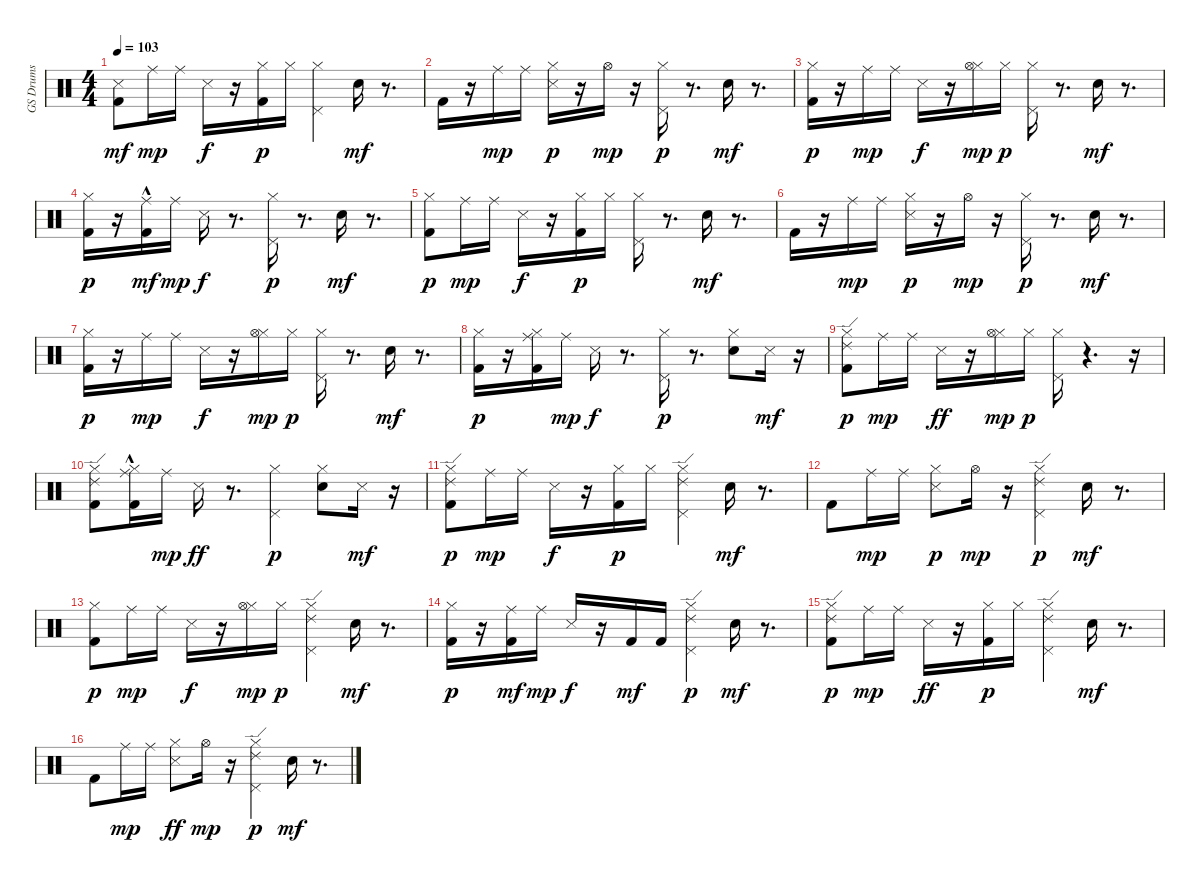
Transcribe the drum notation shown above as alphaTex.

\track ("GS Drums" "GS Drums") {instrument percussion}
\staff {score}
\articulation defaults
\ts (4 4)
\tempo 103
\clef neutral
\ks c
("Kick (hit) 2" "Snare (side stick) 3").8{dy mf} "Ride (middle)".16{dy mp} "Ride (middle)".16 "Snare (side stick) 3".16{dy f} r.16 ("Kick (hit) 2" "Hi-Hat (closed)").16{dy p} "Hi-Hat (closed)".16 ("Pedal Hi-Hat (hit)" "Hi-Hat (closed)").4 "Snare (hit) 2".16{dy mf} r.8{d} |
"Kick (hit) 2".16 r.16 "Ride (middle)".16{dy mp} "Ride (middle)".16 ("Hi-Hat (closed)" "Snare (side stick) 3").16{dy p} r.16 "Hi-Hat (open)".16{dy mp} r.16 ("Pedal Hi-Hat (hit)" "Hi-Hat (closed)").16{dy p} r.8{d} "Snare (hit) 2".16{dy mf} r.8{d} |
("Kick (hit) 2" "Hi-Hat (closed)").16{dy p} r.16 "Ride (middle)".16{dy mp} "Ride (middle)".16 "Snare (side stick) 3".16{dy f} r.16 ("Hi-Hat (closed)" "Hi-Hat (open)").16{dy mp} "Hi-Hat (closed)".16{dy p} ("Pedal Hi-Hat (hit)" "Hi-Hat (closed)").16 r.8{d} "Snare (hit) 2".16{dy mf} r.8{d} |
("Kick (hit) 2" "Hi-Hat (closed)").16{dy p} r.16 ("Ride (middle)" "Kick (hit) 2"{hac}).16{dy mf} "Ride (middle)".16{dy mp} "Snare (side stick) 3".16{dy f} r.8{d} ("Pedal Hi-Hat (hit)" "Hi-Hat (closed)").16{dy p} r.8{d} "Snare (hit) 2".16{dy mf} r.8{d} |
("Kick (hit) 2" "Hi-Hat (closed)").8{dy p} "Ride (middle)".16{dy mp} "Ride (middle)".16 "Snare (side stick) 3".16{dy f} r.16 ("Kick (hit) 2" "Hi-Hat (closed)").16{dy p} "Hi-Hat (closed)".16 ("Pedal Hi-Hat (hit)" "Hi-Hat (closed)").16 r.8{d} "Snare (hit) 2".16{dy mf} r.8{d} |
"Kick (hit) 2".16 r.16 "Ride (middle)".16{dy mp} "Ride (middle)".16 ("Hi-Hat (closed)" "Snare (side stick) 3").16{dy p} r.16 "Hi-Hat (open)".16{dy mp} r.16 ("Pedal Hi-Hat (hit)" "Hi-Hat (closed)").16{dy p} r.8{d} "Snare (hit) 2".16{dy mf} r.8{d} |
("Kick (hit) 2" "Hi-Hat (closed)").16{dy p} r.16 "Ride (middle)".16{dy mp} "Ride (middle)".16 "Snare (side stick) 3".16{dy f} r.16 ("Hi-Hat (closed)" "Hi-Hat (open)").16{dy mp} "Hi-Hat (closed)".16{dy p} ("Pedal Hi-Hat (hit)" "Hi-Hat (closed)").16 r.8{d} "Snare (hit) 2".16{dy mf} r.8{d} |
("Kick (hit) 2" "Hi-Hat (closed)").16{dy p} r.16 ("Ride (middle)" "Kick (hit) 2" "Hi-Hat (closed)").16 "Ride (middle)".16{dy mp} "Snare (side stick) 3".16{dy f} r.8{d} ("Pedal Hi-Hat (hit)" "Hi-Hat (closed)").16{dy p} r.8{d} ("Snare (hit) 2" "Hi-Hat (closed)").8 "Snare (side stick) 3".16{dy mf} r.16 |
("Ride (edge) 2" "Kick (hit) 2" "Hi-Hat (closed)").8{dy p} "Ride (middle)".16{dy mp} "Ride (middle)".16 "Snare (side stick) 3".16{dy ff} r.16 ("Hi-Hat (closed)" "Hi-Hat (open)").16{dy mp} "Hi-Hat (closed)".16{dy p} ("Pedal Hi-Hat (hit)" "Hi-Hat (closed)").16 r.4{d} r.16 |
("Ride (edge) 2" "Kick (hit) 2" "Hi-Hat (closed)").8 ("Ride (middle)" "Kick (hit) 2"{hac} "Hi-Hat (closed)").16 "Ride (middle)".16{dy mp} "Snare (side stick) 3".16{dy ff} r.8{d} ("Pedal Hi-Hat (hit)" "Hi-Hat (closed)").4{dy p} ("Snare (hit) 2" "Hi-Hat (closed)").8 "Snare (side stick) 3".16{dy mf} r.16 |
("Ride (edge) 2" "Kick (hit) 2" "Hi-Hat (closed)").8{dy p} "Ride (middle)".16{dy mp} "Ride (middle)".16 "Snare (side stick) 3".16{dy f} r.16 ("Kick (hit) 2" "Hi-Hat (closed)").16{dy p} "Hi-Hat (closed)".16 ("Pedal Hi-Hat (hit)" "Ride (edge) 2" "Hi-Hat (closed)").4 "Snare (hit) 2".16{dy mf} r.8{d} |
"Kick (hit) 2".8 "Ride (middle)".16{dy mp} "Ride (middle)".16 ("Hi-Hat (closed)" "Snare (side stick) 3").8{dy p} "Hi-Hat (open)".16{dy mp} r.16 ("Pedal Hi-Hat (hit)" "Ride (edge) 2" "Hi-Hat (closed)").4{dy p} "Snare (hit) 2".16{dy mf} r.8{d} |
("Kick (hit) 2" "Hi-Hat (closed)").8{dy p} "Ride (middle)".16{dy mp} "Ride (middle)".16 "Snare (side stick) 3".16{dy f} r.16 ("Hi-Hat (closed)" "Hi-Hat (open)").16{dy mp} "Hi-Hat (closed)".16{dy p} ("Pedal Hi-Hat (hit)" "Ride (edge) 2" "Hi-Hat (closed)").4 "Snare (hit) 2".16{dy mf} r.8{d} |
("Kick (hit) 2" "Hi-Hat (closed)").16{dy p} r.16 ("Ride (middle)" "Kick (hit) 2").16{dy mf} "Ride (middle)".16{dy mp} "Snare (side stick) 3".16{dy f} r.16 "Kick (hit) 2".16{dy mf} "Kick (hit) 2".16 ("Pedal Hi-Hat (hit)" "Ride (edge) 2" "Hi-Hat (closed)").4{dy p} "Snare (hit) 2".16{dy mf} r.8{d} |
("Ride (edge) 2" "Kick (hit) 2" "Hi-Hat (closed)").8{dy p} "Ride (middle)".16{dy mp} "Ride (middle)".16 "Snare (side stick) 3".16{dy ff} r.16 ("Kick (hit) 2" "Hi-Hat (closed)").16{dy p} "Hi-Hat (closed)".16 ("Pedal Hi-Hat (hit)" "Ride (edge) 2" "Hi-Hat (closed)").4 "Snare (hit) 2".16{dy mf} r.8{d} |
"Kick (hit) 2".8 "Ride (middle)".16{dy mp} "Ride (middle)".16 ("Hi-Hat (closed)" "Snare (side stick) 3").8{dy ff} "Hi-Hat (open)".16{dy mp} r.16 ("Pedal Hi-Hat (hit)" "Ride (edge) 2" "Hi-Hat (closed)").4{dy p} "Snare (hit) 2".16{dy mf} r.8{d}
